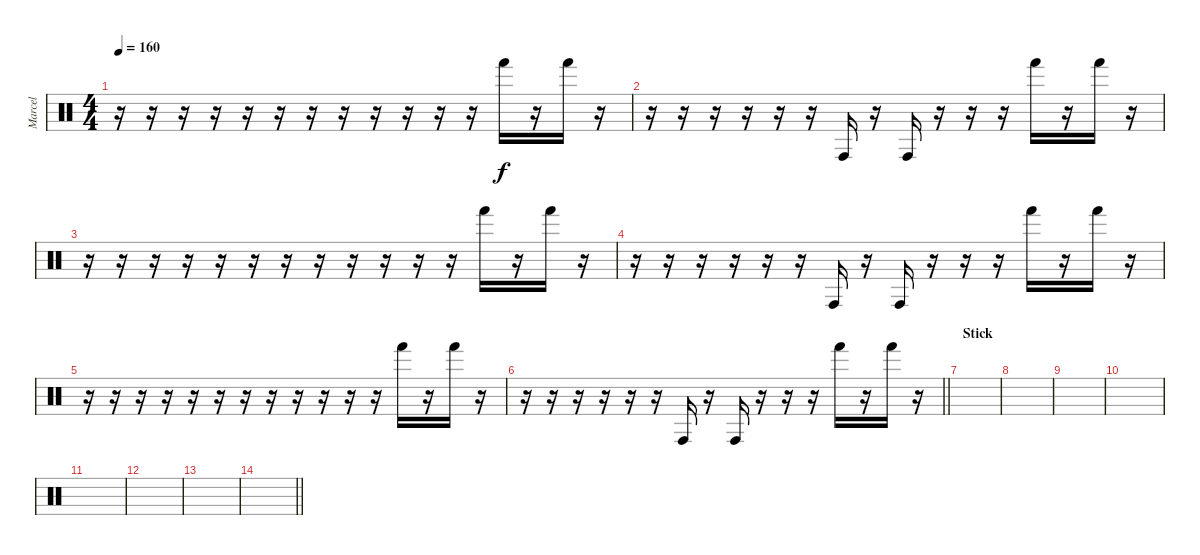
\track ("Marcel" "Marcel") {instrument percussion}
\staff {score}
\articulation defaults
\ts (4 4)
\tempo 160
\clef neutral
\ks c
r.16{dy f} r.16 r.16 r.16 r.16 r.16 r.16 r.16 r.16 r.16 r.16 r.16 "Hand (hit)".16 r.16 "Hand (hit)".16 r.16 |
r.16 r.16 r.16 r.16 r.16 r.16 "Conga high (hit)".16 r.16 "Conga high (hit)".16 r.16 r.16 r.16 "Hand (hit)".16 r.16 "Hand (hit)".16 r.16 |
r.16 r.16 r.16 r.16 r.16 r.16 r.16 r.16 r.16 r.16 r.16 r.16 "Hand (hit)".16 r.16 "Hand (hit)".16 r.16 |
r.16 r.16 r.16 r.16 r.16 r.16 "Conga high (hit)".16 r.16 "Conga high (hit)".16 r.16 r.16 r.16 "Hand (hit)".16 r.16 "Hand (hit)".16 r.16 |
r.16 r.16 r.16 r.16 r.16 r.16 r.16 r.16 r.16 r.16 r.16 r.16 "Hand (hit)".16 r.16 "Hand (hit)".16 r.16 |
\barLineRight lightlight
r.16 r.16 r.16 r.16 r.16 r.16 "Conga high (hit)".16 r.16 "Conga high (hit)".16 r.16 r.16 r.16 "Hand (hit)".16 r.16 "Hand (hit)".16 r.16 |
\section ("" "Stick")
|
|
|
|
|
|
|
\barLineRight lightlight
